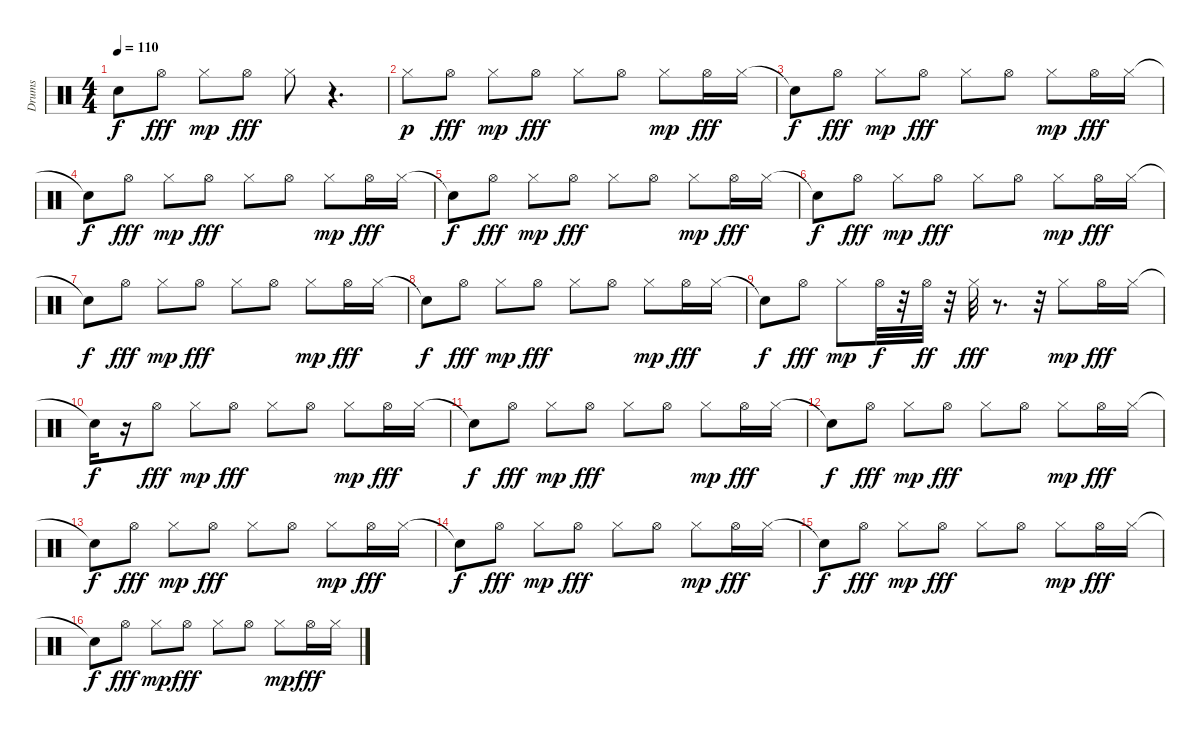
\track ("Drums" "Drums") {instrument percussion}
\staff {score}
\articulation defaults
\ts (4 4)
\tempo 110
\clef neutral
\ks c "Snare (hit)"{t}.8{dy f} "Hi-Hat (open)".8{dy fff} "Hi-Hat (closed)".8{dy mp} "Hi-Hat (open)".8{dy fff} "Hi-Hat (closed)".8
r.4{d} |
"Hi-Hat (closed)".8{dy p} "Hi-Hat (open)".8{dy fff} "Hi-Hat (closed)".8{dy mp} "Hi-Hat (open)".8{dy fff} "Hi-Hat (closed)".8 "Hi-Hat (open)".8 "Hi-Hat (closed)".8{dy mp} "Hi-Hat (open)".16{dy fff} "Hi-Hat (closed)".16 |
"Snare (hit)"{t}.8{dy f} "Hi-Hat (open)".8{dy fff} "Hi-Hat (closed)".8{dy mp} "Hi-Hat (open)".8{dy fff} "Hi-Hat (closed)".8 "Hi-Hat (open)".8 "Hi-Hat (closed)".8{dy mp} "Hi-Hat (open)".16{dy fff} "Hi-Hat (closed)".16 |
"Snare (hit)"{t}.8{dy f} "Hi-Hat (open)".8{dy fff} "Hi-Hat (closed)".8{dy mp} "Hi-Hat (open)".8{dy fff} "Hi-Hat (closed)".8 "Hi-Hat (open)".8 "Hi-Hat (closed)".8{dy mp} "Hi-Hat (open)".16{dy fff} "Hi-Hat (closed)".16 |
"Snare (hit)"{t}.8{dy f} "Hi-Hat (open)".8{dy fff} "Hi-Hat (closed)".8{dy mp} "Hi-Hat (open)".8{dy fff} "Hi-Hat (closed)".8 "Hi-Hat (open)".8 "Hi-Hat (closed)".8{dy mp} "Hi-Hat (open)".16{dy fff} "Hi-Hat (closed)".16 |
"Snare (hit)"{t}.8{dy f} "Hi-Hat (open)".8{dy fff} "Hi-Hat (closed)".8{dy mp} "Hi-Hat (open)".8{dy fff} "Hi-Hat (closed)".8 "Hi-Hat (open)".8 "Hi-Hat (closed)".8{dy mp} "Hi-Hat (open)".16{dy fff} "Hi-Hat (closed)".16 |
"Snare (hit)"{t}.8{dy f} "Hi-Hat (open)".8{dy fff} "Hi-Hat (closed)".8{dy mp} "Hi-Hat (open)".8{dy fff} "Hi-Hat (closed)".8 "Hi-Hat (open)".8 "Hi-Hat (closed)".8{dy mp} "Hi-Hat (open)".16{dy fff} "Hi-Hat (closed)".16 |
"Snare (hit)"{t}.8{dy f} "Hi-Hat (open)".8{dy fff} "Hi-Hat (closed)".8{dy mp} "Hi-Hat (open)".8{dy fff} "Hi-Hat (closed)".8 "Hi-Hat (open)".8 "Hi-Hat (closed)".8{dy mp} "Hi-Hat (open)".16{dy fff} "Hi-Hat (closed)".16 |
"Snare (hit)"{t}.8{dy f} "Hi-Hat (open)".8{dy fff} "Hi-Hat (closed)".8{dy mp} "Hi-Hat (open)".32{dy f} r.32 "Hi-Hat (open)".32{dy ff} r.32 "Hi-Hat (closed)".32{dy fff} r.8{d} r.32 "Hi-Hat (closed)".8{dy mp} "Hi-Hat (open)".16{dy fff} "Hi-Hat (closed)".16 |
"Snare (hit)"{t}.16{dy f} r.16 "Hi-Hat (open)".8{dy fff} "Hi-Hat (closed)".8{dy mp} "Hi-Hat (open)".8{dy fff} "Hi-Hat (closed)".8 "Hi-Hat (open)".8 "Hi-Hat (closed)".8{dy mp} "Hi-Hat (open)".16{dy fff} "Hi-Hat (closed)".16 |
"Snare (hit)"{t}.8{dy f} "Hi-Hat (open)".8{dy fff} "Hi-Hat (closed)".8{dy mp} "Hi-Hat (open)".8{dy fff} "Hi-Hat (closed)".8 "Hi-Hat (open)".8 "Hi-Hat (closed)".8{dy mp} "Hi-Hat (open)".16{dy fff} "Hi-Hat (closed)".16 |
"Snare (hit)"{t}.8{dy f} "Hi-Hat (open)".8{dy fff} "Hi-Hat (closed)".8{dy mp} "Hi-Hat (open)".8{dy fff} "Hi-Hat (closed)".8 "Hi-Hat (open)".8 "Hi-Hat (closed)".8{dy mp} "Hi-Hat (open)".16{dy fff} "Hi-Hat (closed)".16 |
"Snare (hit)"{t}.8{dy f} "Hi-Hat (open)".8{dy fff} "Hi-Hat (closed)".8{dy mp} "Hi-Hat (open)".8{dy fff} "Hi-Hat (closed)".8 "Hi-Hat (open)".8 "Hi-Hat (closed)".8{dy mp} "Hi-Hat (open)".16{dy fff} "Hi-Hat (closed)".16 |
"Snare (hit)"{t}.8{dy f} "Hi-Hat (open)".8{dy fff} "Hi-Hat (closed)".8{dy mp} "Hi-Hat (open)".8{dy fff} "Hi-Hat (closed)".8 "Hi-Hat (open)".8 "Hi-Hat (closed)".8{dy mp} "Hi-Hat (open)".16{dy fff} "Hi-Hat (closed)".16 |
"Snare (hit)"{t}.8{dy f} "Hi-Hat (open)".8{dy fff} "Hi-Hat (closed)".8{dy mp} "Hi-Hat (open)".8{dy fff} "Hi-Hat (closed)".8 "Hi-Hat (open)".8 "Hi-Hat (closed)".8{dy mp} "Hi-Hat (open)".16{dy fff} "Hi-Hat (closed)".16 |
"Snare (hit)"{t}.8{dy f} "Hi-Hat (open)".8{dy fff} "Hi-Hat (closed)".8{dy mp} "Hi-Hat (open)".8{dy fff} "Hi-Hat (closed)".8 "Hi-Hat (open)".8 "Hi-Hat (closed)".8{dy mp} "Hi-Hat (open)".16{dy fff} "Hi-Hat (closed)".16
